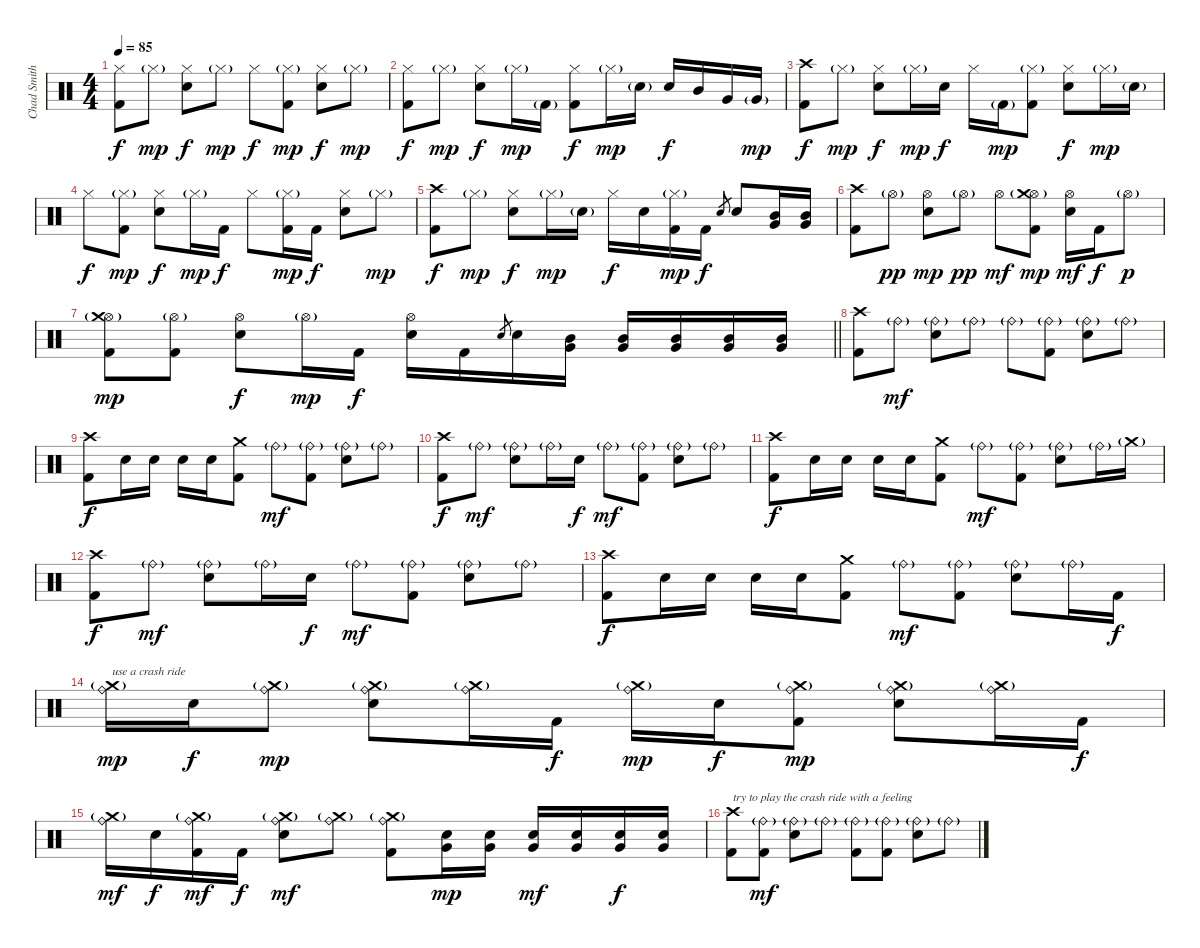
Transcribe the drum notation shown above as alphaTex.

\track ("Chad Smith" "Chad Smith") {instrument percussion}
\staff {score}
\articulation defaults
\ts (4 4)
\tempo 85
\clef neutral
\ks c
("Hi-Hat (closed)" "Kick (hit) 2").8{dy f} "Hi-Hat (closed)"{g}.8{dy mp} ("Hi-Hat (closed)" "Electric Snare (hit)").8{dy f} "Hi-Hat (closed)"{g}.8{dy mp} "Hi-Hat (closed)".8{dy f} ("Hi-Hat (closed)"{g} "Kick (hit) 2").8{dy mp} ("Hi-Hat (closed)" "Electric Snare (hit)").8{dy f} "Hi-Hat (closed)"{g}.8{dy mp} |
("Hi-Hat (closed)" "Kick (hit) 2").8{dy f} "Hi-Hat (closed)"{g}.8{dy mp} ("Hi-Hat (closed)" "Electric Snare (hit)").8{dy f} "Hi-Hat (closed)"{g}.16{dy mp} "Kick (hit) 2"{g}.16 ("Hi-Hat (closed)" "Kick (hit) 2").8{dy f} "Hi-Hat (closed)"{g}.16{dy mp} "Electric Snare (hit)"{g}.16 "Electric Snare (hit)".16{dy f} "Mid Tom (hit)".16 "Very Low Tom (hit)".16 "Very Low Tom (hit)"{g}.16{dy mp} |
("Crash high (hit)" "Kick (hit) 2").8{dy f} "Hi-Hat (closed)"{g}.8{dy mp} ("Hi-Hat (closed)" "Electric Snare (hit)").8{dy f} "Hi-Hat (closed)"{g}.16{dy mp} "Electric Snare (hit)".16{dy f} "Hi-Hat (closed)".16 "Kick (hit) 2"{g}.16{dy mp} ("Hi-Hat (closed)"{g} "Kick (hit) 2").8 ("Hi-Hat (closed)" "Electric Snare (hit)").8{dy f} "Hi-Hat (closed)"{g}.16{dy mp} "Electric Snare (hit)"{g}.16 |
"Hi-Hat (closed)".8{dy f} ("Hi-Hat (closed)"{g} "Kick (hit) 2").8{dy mp} ("Hi-Hat (closed)" "Electric Snare (hit)").8{dy f} "Hi-Hat (closed)"{g}.16{dy mp} "Kick (hit) 2".16{dy f} "Hi-Hat (closed)".8 ("Hi-Hat (closed)"{g} "Kick (hit) 2").16{dy mp} "Kick (hit) 2".16{dy f} ("Hi-Hat (closed)" "Electric Snare (hit)").8 "Hi-Hat (closed)"{g}.8{dy mp} |
("Crash high (hit)" "Kick (hit) 2").8{dy f} "Hi-Hat (closed)"{g}.8{dy mp} ("Hi-Hat (closed)" "Electric Snare (hit)").8{dy f} "Hi-Hat (closed)"{g}.16{dy mp} "Electric Snare (hit)"{g}.16 "Hi-Hat (closed)".16{dy f} "Electric Snare (hit)".16 ("Hi-Hat (closed)"{g} "Kick (hit) 2").16{dy mp} "Kick (hit) 2".16{dy f} "Electric Snare (hit)".8{gr} "Electric Snare (hit)".8 ("Mid Tom (hit)" "Very Low Tom (hit)").16 ("Mid Tom (hit)" "Very Low Tom (hit)").16 |
("Crash high (hit)" "Kick (hit) 2").8 "Hi-Hat (open)"{g}.8{dy pp} ("Hi-Hat (open)" "Electric Snare (hit)").8{dy mp} "Hi-Hat (open)"{g}.8{dy pp} "Hi-Hat (open)".8{dy mf} ("Hi-Hat (open)"{g} "Crash medium (hit)"{g} "Kick (hit) 2").8{dy mp} ("Hi-Hat (open)" "Electric Snare (hit)").16{dy mf} "Kick (hit) 2".16{dy f} "Hi-Hat (open)"{g}.8{dy p} |
\barLineRight lightlight
("Hi-Hat (open)" "Crash medium (hit)"{g} "Kick (hit) 2").8{dy mp} ("Hi-Hat (open)"{g} "Kick (hit) 2").8 ("Hi-Hat (open)" "Electric Snare (hit)").8{dy f} "Hi-Hat (open)"{g}.16{dy mp} "Kick (hit) 2".16{dy f} ("Hi-Hat (open)" "Electric Snare (hit)").16 "Kick (hit) 2".16 "Electric Snare (hit)".8{gr} "Electric Snare (hit)".16 ("Mid Tom (hit)" "Very Low Tom (hit)").16 ("Mid Tom (hit)" "Very Low Tom (hit)").16 ("Mid Tom (hit)" "Very Low Tom (hit)").16 ("Mid Tom (hit)" "Very Low Tom (hit)").16 ("Mid Tom (hit)" "Very Low Tom (hit)").16 |
("Crash high (hit)" "Kick (hit) 2").8 "Ride (bell)"{g}.8{dy mf} ("Ride (bell)"{g} "Electric Snare (hit)").8 "Ride (bell)"{g}.8 "Ride (bell)"{g}.8 ("Ride (bell)"{g} "Kick (hit) 2").8 ("Ride (bell)"{g} "Electric Snare (hit)").8 "Ride (bell)"{g}.8 |
("Crash high (hit)" "Kick (hit) 2").8{dy f} "Electric Snare (hit)".16 "Electric Snare (hit)".16 "Electric Snare (hit)".16 "Electric Snare (hit)".16 ("Crash medium (hit)" "Kick (hit) 2").8 "Ride (bell)"{g}.8{dy mf} ("Ride (bell)"{g} "Kick (hit) 2").8 ("Ride (bell)"{g} "Electric Snare (hit)").8 "Ride (bell)"{g}.8 |
("Crash high (hit)" "Kick (hit) 2").8{dy f} "Ride (bell)"{g}.8{dy mf} ("Ride (bell)"{g} "Electric Snare (hit)").8 "Ride (bell)"{g}.16 "Electric Snare (hit)".16{dy f} "Ride (bell)"{g}.8{dy mf} ("Ride (bell)"{g} "Kick (hit) 2").8 ("Ride (bell)"{g} "Electric Snare (hit)").8 "Ride (bell)"{g}.8 |
("Crash high (hit)" "Kick (hit) 2").8{dy f} "Electric Snare (hit)".16 "Electric Snare (hit)".16 "Electric Snare (hit)".16 "Electric Snare (hit)".16 ("Crash medium (hit)" "Kick (hit) 2").8 "Ride (bell)"{g}.8{dy mf} ("Ride (bell)"{g} "Kick (hit) 2").8 ("Ride (bell)"{g} "Electric Snare (hit)").8 "Ride (bell)"{g}.16 "Crash medium (hit)"{g}.16 |
("Crash high (hit)" "Kick (hit) 2").8{dy f} "Ride (bell)"{g}.8{dy mf} ("Ride (bell)"{g} "Electric Snare (hit)").8 "Ride (bell)"{g}.16 "Electric Snare (hit)".16{dy f} "Ride (bell)"{g}.8{dy mf} ("Ride (bell)"{g} "Kick (hit) 2").8 ("Ride (bell)"{g} "Electric Snare (hit)").8 "Ride (bell)"{g}.8 |
("Crash high (hit)" "Kick (hit) 2").8{dy f} "Electric Snare (hit)".16 "Electric Snare (hit)".16 "Electric Snare (hit)".16 "Electric Snare (hit)".16 ("Crash medium (hit)" "Kick (hit) 2").8 "Ride (bell)"{g}.8{dy mf} ("Ride (bell)"{g} "Kick (hit) 2").8 ("Ride (bell)"{g} "Electric Snare (hit)").8 "Ride (bell)"{g}.16 "Kick (hit) 2".16{dy f} |
("Ride (bell)" "Crash medium (hit)"{g}).16{txt "use a crash ride" dy mp} "Electric Snare (hit)".16{dy f} ("Ride (bell)" "Crash medium (hit)"{g}).8{dy mp} ("Ride (bell)" "Crash medium (hit)"{g} "Electric Snare (hit)").8 ("Ride (bell)" "Crash medium (hit)"{g}).16 "Kick (hit) 2".16{dy f} ("Ride (bell)" "Crash medium (hit)"{g}).16{dy mp} "Electric Snare (hit)".16{dy f} ("Ride (bell)" "Crash medium (hit)"{g} "Kick (hit) 2").8{dy mp} ("Ride (bell)" "Crash medium (hit)"{g} "Electric Snare (hit)").8 ("Ride (bell)" "Crash medium (hit)"{g}).16 "Kick (hit) 2".16{dy f} |
("Crash medium (hit)"{g} "Ride (bell)").16{dy mf} "Electric Snare (hit)".16{dy f} ("Crash medium (hit)"{g} "Ride (bell)" "Kick (hit) 2").16{dy mf} "Kick (hit) 2".16{dy f} ("Crash medium (hit)"{g} "Ride (bell)" "Electric Snare (hit)").8{dy mf} ("Crash medium (hit)"{g} "Ride (bell)").8 ("Crash medium (hit)"{g} "Ride (bell)" "Kick (hit) 2").8 ("Electric Snare (hit)" "Very Low Tom (hit)").16{dy mp} ("Electric Snare (hit)" "Very Low Tom (hit)").16 ("Electric Snare (hit)" "Very Low Tom (hit)").16{dy mf} ("Electric Snare (hit)" "Very Low Tom (hit)").16 ("Electric Snare (hit)" "Very Low Tom (hit)").16{dy f} ("Electric Snare (hit)" "Very Low Tom (hit)").16 |
("Crash high (hit)" "Kick (hit) 2").8{txt "try to play the crash ride with a feeling"} ("Ride (bell)"{g} "Kick (hit) 2").8{dy mf} ("Ride (bell)"{g} "Electric Snare (hit)").8 "Ride (bell)"{g}.8 ("Ride (bell)"{g} "Kick (hit) 2").8 ("Ride (bell)"{g} "Kick (hit) 2").8 ("Ride (bell)"{g} "Electric Snare (hit)").8 "Ride (bell)"{g}.8
